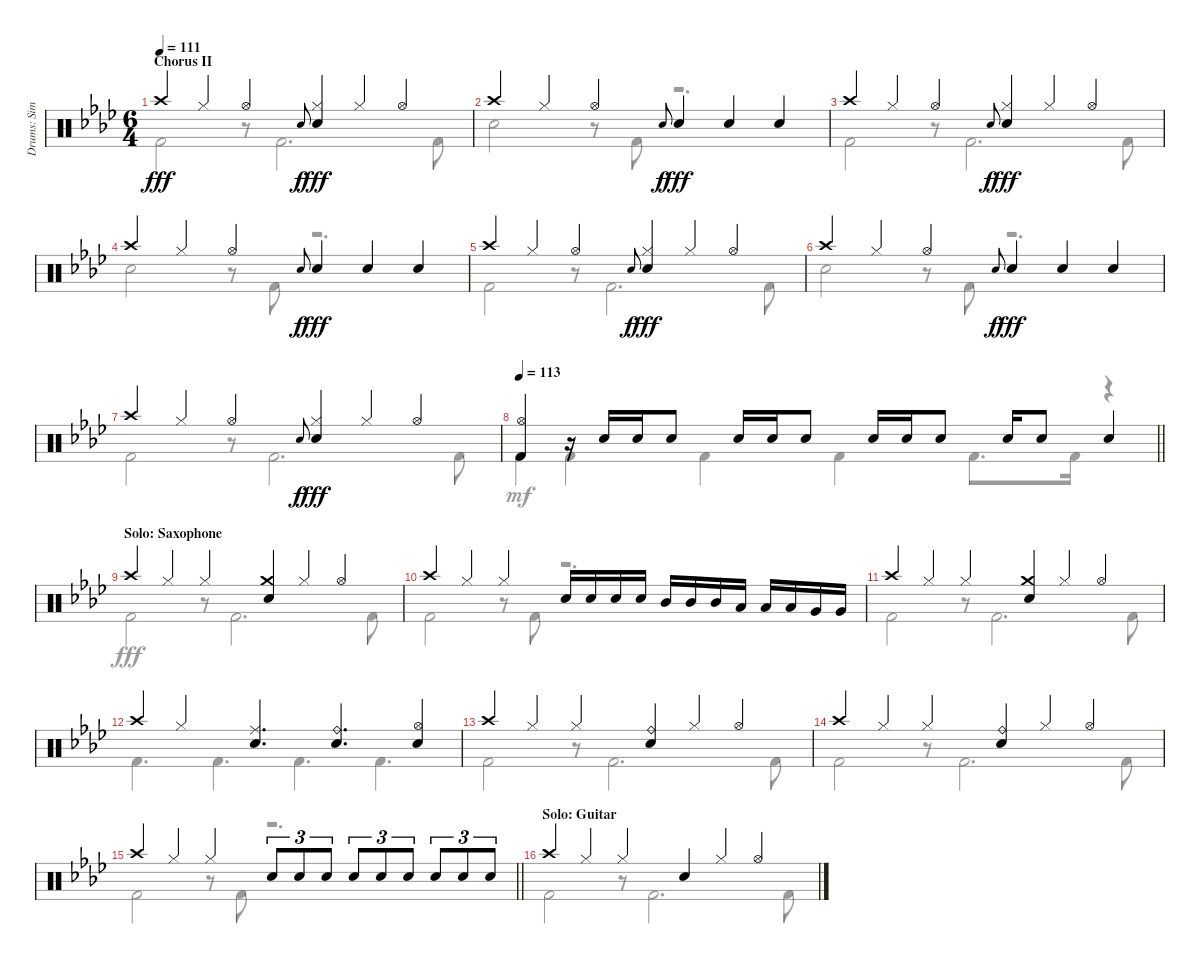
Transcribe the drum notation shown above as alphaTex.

\track ("Drums: Simon" "Drums: Sim") {instrument percussion}
\staff {score}
\articulation defaults
\voice
\ts (6 4)
\section ("" "Chorus II")
\tempo 111
\clef neutral
\ks ab "Crash high (hit)".4{dy fff} "Hi-Hat (closed)".4 "Hi-Hat (open)".4 "Electric Snare (hit)".8{gr onbeat dy f}
("Hi-Hat (closed)" "Snare (hit) 2").4{dy fff} "Hi-Hat (closed)".4 "Hi-Hat (open)".4 |
"Crash high (hit)".4 "Hi-Hat (closed)".4 "Hi-Hat (open)".4 "Snare (hit) 2".8{gr onbeat dy f} "Electric Snare (hit)".4{dy fff} "Electric Snare (hit)".4 "Electric Snare (hit)".4 |
"Crash high (hit)".4 "Hi-Hat (closed)".4 "Hi-Hat (open)".4 "Electric Snare (hit)".8{gr onbeat dy f} ("Hi-Hat (closed)" "Snare (hit) 2").4{dy fff} "Hi-Hat (closed)".4 "Hi-Hat (open)".4 |
"Crash high (hit)".4 "Hi-Hat (closed)".4 "Hi-Hat (open)".4 "Snare (hit) 2".8{gr onbeat dy f} "Electric Snare (hit)".4{dy fff} "Electric Snare (hit)".4 "Electric Snare (hit)".4 |
"Crash high (hit)".4 "Hi-Hat (closed)".4 "Hi-Hat (open)".4 "Electric Snare (hit)".8{gr onbeat dy f} ("Hi-Hat (closed)" "Snare (hit) 2").4{dy fff} "Hi-Hat (closed)".4 "Hi-Hat (open)".4 |
"Crash high (hit)".4 "Hi-Hat (closed)".4 "Hi-Hat (open)".4 "Snare (hit) 2".8{gr onbeat dy f} "Electric Snare (hit)".4{dy fff} "Electric Snare (hit)".4 "Electric Snare (hit)".4 |
"Crash high (hit)".4 "Hi-Hat (closed)".4 "Hi-Hat (open)".4 "Electric Snare (hit)".8{gr onbeat dy f} ("Hi-Hat (closed)" "Snare (hit) 2").4{dy fff} "Hi-Hat (closed)".4 "Hi-Hat (open)".4 |
\tempo 113
\barLineRight lightlight
("Hi-Hat (open)" "Kick (hit) 2").4 r.16 "Electric Snare (hit)".16 "Electric Snare (hit)".16 "Electric Snare (hit)".8 "Electric Snare (hit)".16 "Electric Snare (hit)".16 "Electric Snare (hit)".8 "Electric Snare (hit)".16 "Electric Snare (hit)".16 "Electric Snare (hit)".8 "Electric Snare (hit)".16 "Electric Snare (hit)".8 "Electric Snare (hit)".4 |
\section ("" "Solo: Saxophone")
"Crash high (hit)".4 "Hi-Hat (closed)".4 "Hi-Hat (closed)".4 ("Crash medium (hit)" "Electric Snare (hit)").4 "Hi-Hat (closed)".4 "Hi-Hat (open)".4 |
"Crash high (hit)".4 "Hi-Hat (closed)".4 "Hi-Hat (closed)".4 "Electric Snare (hit)".16 "Electric Snare (hit)".16 "Electric Snare (hit)".16 "Electric Snare (hit)".16 "Mid Tom (hit)".16 "Mid Tom (hit)".16 "Mid Tom (hit)".16 "Low Tom (hit)".16 "Low Tom (hit)".16 "Low Tom (hit)".16 "Very Low Tom (hit)".16 "Very Low Tom (hit)".16 |
"Crash high (hit)".4 "Hi-Hat (closed)".4 "Hi-Hat (closed)".4 ("Crash medium (hit)" "Electric Snare (hit)").4 "Hi-Hat (closed)".4 "Hi-Hat (open)".4 |
"Crash high (hit)".4 "Hi-Hat (closed)".4 ("Ride (middle)" "Snare (hit) 2").4{d} ("Ride (bell)" "Snare (hit) 2").4{d} ("Hi-Hat (open)" "Snare (hit) 2").4 |
"Crash high (hit)".4 "Hi-Hat (closed)".4 "Hi-Hat (closed)".4 ("Ride (bell)" "Snare (hit) 2").4 "Hi-Hat (closed)".4 "Hi-Hat (open)".4 |
"Crash high (hit)".4 "Hi-Hat (closed)".4 "Hi-Hat (closed)".4 ("Ride (bell)" "Snare (hit) 2").4 "Hi-Hat (closed)".4 "Hi-Hat (open)".4 |
\barLineRight lightlight "Crash high (hit)".4 "Hi-Hat (closed)".4 "Hi-Hat (closed)".4 "Electric Snare (hit)".8{tu (3 2)} "Electric Snare (hit)".8{tu (3 2)} "Electric Snare (hit)".8{tu (3 2)} "Electric Snare (hit)".8{tu (3 2)} "Electric Snare (hit)".8{tu (3 2)} "Electric Snare (hit)".8{tu (3 2)} "Electric Snare (hit)".8{tu (3 2)} "Electric Snare (hit)".8{tu (3 2)} "Electric Snare (hit)".8{tu (3 2)}
|
\section ("" "Solo: Guitar")
"Crash high (hit)".4 "Hi-Hat (closed)".4 "Hi-Hat (closed)".4 "Electric Snare (hit)".4 "Hi-Hat (closed)".4 "Hi-Hat (open)".4
\voice
\clef neutral
\ottava regular
\simile none
\ks ab "Kick (hit) 2".2{dy fff}
r.8 "Kick (hit) 2".2{d} "Kick (hit) 2".8 |
"Snare (hit)".2 r.8 "Kick (hit) 2".8 r.2{d} |
"Kick (hit) 2".2 r.8 "Kick (hit) 2".2{d} "Kick (hit) 2".8 |
"Snare (hit)".2 r.8 "Kick (hit) 2".8 r.2{d} |
"Kick (hit) 2".2 r.8 "Kick (hit) 2".2{d} "Kick (hit) 2".8 |
"Snare (hit)".2 r.8 "Kick (hit) 2".8 r.2{d} |
"Kick (hit) 2".2 r.8 "Kick (hit) 2".2{d} "Kick (hit) 2".8 |
\barLineRight lightlight "Kick (hit) 2".4{dy mf} "Kick (hit) 2".4 "Kick (hit) 2".4 "Kick (hit) 2".4 "Kick (hit) 2".8{d} "Kick (hit) 2".16
r.4 |
"Kick (hit) 2".2{dy fff} r.8 "Kick (hit) 2".2{d} "Kick (hit) 2".8 |
"Kick (hit) 2".2 r.8 "Kick (hit) 2".8 r.2{d} |
"Kick (hit) 2".2 r.8 "Kick (hit) 2".2{d} "Kick (hit) 2".8 |
"Kick (hit) 2".4{d} "Kick (hit) 2".4{d} "Kick (hit) 2".4{d} "Kick (hit) 2".4{d} |
"Kick (hit) 2".2 r.8 "Kick (hit) 2".2{d} "Kick (hit) 2".8 |
"Kick (hit) 2".2 r.8 "Kick (hit) 2".2{d} "Kick (hit) 2".8 |
\barLineRight lightlight "Kick (hit) 2".2
r.8 "Kick (hit) 2".8 r.2{d} |
"Kick (hit) 2".2 r.8 "Kick (hit) 2".2{d} "Kick (hit) 2".8
